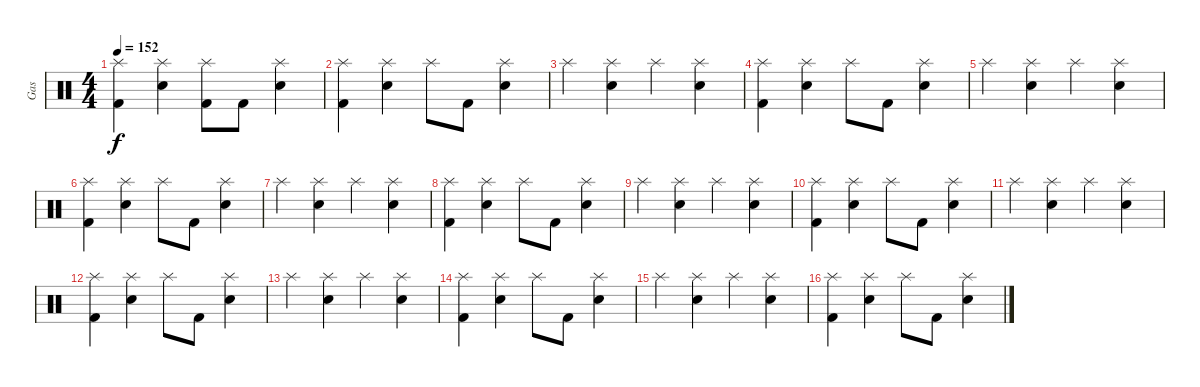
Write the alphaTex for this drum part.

\track ("Gas" "Gas") {instrument percussion}
\staff {score}
\articulation defaults
\ts (4 4)
\tempo 152
\clef neutral
\ks c
("Splash (hit)" "Kick (hit) 2").4{dy f} ("Splash (hit)" "Electric Snare (hit)").4 ("Splash (hit)" "Kick (hit) 2").8 "Kick (hit) 2".8 ("Splash (hit)" "Electric Snare (hit)").4 |
("Splash (hit)" "Kick (hit) 2").4 ("Splash (hit)" "Electric Snare (hit)").4 "Splash (hit)".8 "Kick (hit) 2".8 ("Splash (hit)" "Electric Snare (hit)").4 |
"Splash (hit)".4 ("Splash (hit)" "Electric Snare (hit)").4 "Splash (hit)".4 ("Splash (hit)" "Electric Snare (hit)").4 |
("Splash (hit)" "Kick (hit) 2").4 ("Splash (hit)" "Electric Snare (hit)").4 "Splash (hit)".8 "Kick (hit) 2".8 ("Splash (hit)" "Electric Snare (hit)").4 |
"Splash (hit)".4 ("Splash (hit)" "Electric Snare (hit)").4 "Splash (hit)".4 ("Splash (hit)" "Electric Snare (hit)").4 |
("Splash (hit)" "Kick (hit) 2").4 ("Splash (hit)" "Electric Snare (hit)").4 "Splash (hit)".8 "Kick (hit) 2".8 ("Splash (hit)" "Electric Snare (hit)").4 |
"Splash (hit)".4 ("Splash (hit)" "Electric Snare (hit)").4 "Splash (hit)".4 ("Splash (hit)" "Electric Snare (hit)").4 |
("Splash (hit)" "Kick (hit) 2").4 ("Splash (hit)" "Electric Snare (hit)").4 "Splash (hit)".8 "Kick (hit) 2".8 ("Splash (hit)" "Electric Snare (hit)").4 |
"Splash (hit)".4 ("Splash (hit)" "Electric Snare (hit)").4 "Splash (hit)".4 ("Splash (hit)" "Electric Snare (hit)").4 |
("Splash (hit)" "Kick (hit) 2").4 ("Splash (hit)" "Electric Snare (hit)").4 "Splash (hit)".8 "Kick (hit) 2".8 ("Splash (hit)" "Electric Snare (hit)").4 |
"Splash (hit)".4 ("Splash (hit)" "Electric Snare (hit)").4 "Splash (hit)".4 ("Splash (hit)" "Electric Snare (hit)").4 |
("Splash (hit)" "Kick (hit) 2").4 ("Splash (hit)" "Electric Snare (hit)").4 "Splash (hit)".8 "Kick (hit) 2".8 ("Splash (hit)" "Electric Snare (hit)").4 |
"Splash (hit)".4 ("Splash (hit)" "Electric Snare (hit)").4 "Splash (hit)".4 ("Splash (hit)" "Electric Snare (hit)").4 |
("Splash (hit)" "Kick (hit) 2").4 ("Splash (hit)" "Electric Snare (hit)").4 "Splash (hit)".8 "Kick (hit) 2".8 ("Splash (hit)" "Electric Snare (hit)").4 |
"Splash (hit)".4 ("Splash (hit)" "Electric Snare (hit)").4 "Splash (hit)".4 ("Splash (hit)" "Electric Snare (hit)").4 |
("Splash (hit)" "Kick (hit) 2").4 ("Splash (hit)" "Electric Snare (hit)").4 "Splash (hit)".8 "Kick (hit) 2".8 ("Splash (hit)" "Electric Snare (hit)").4
